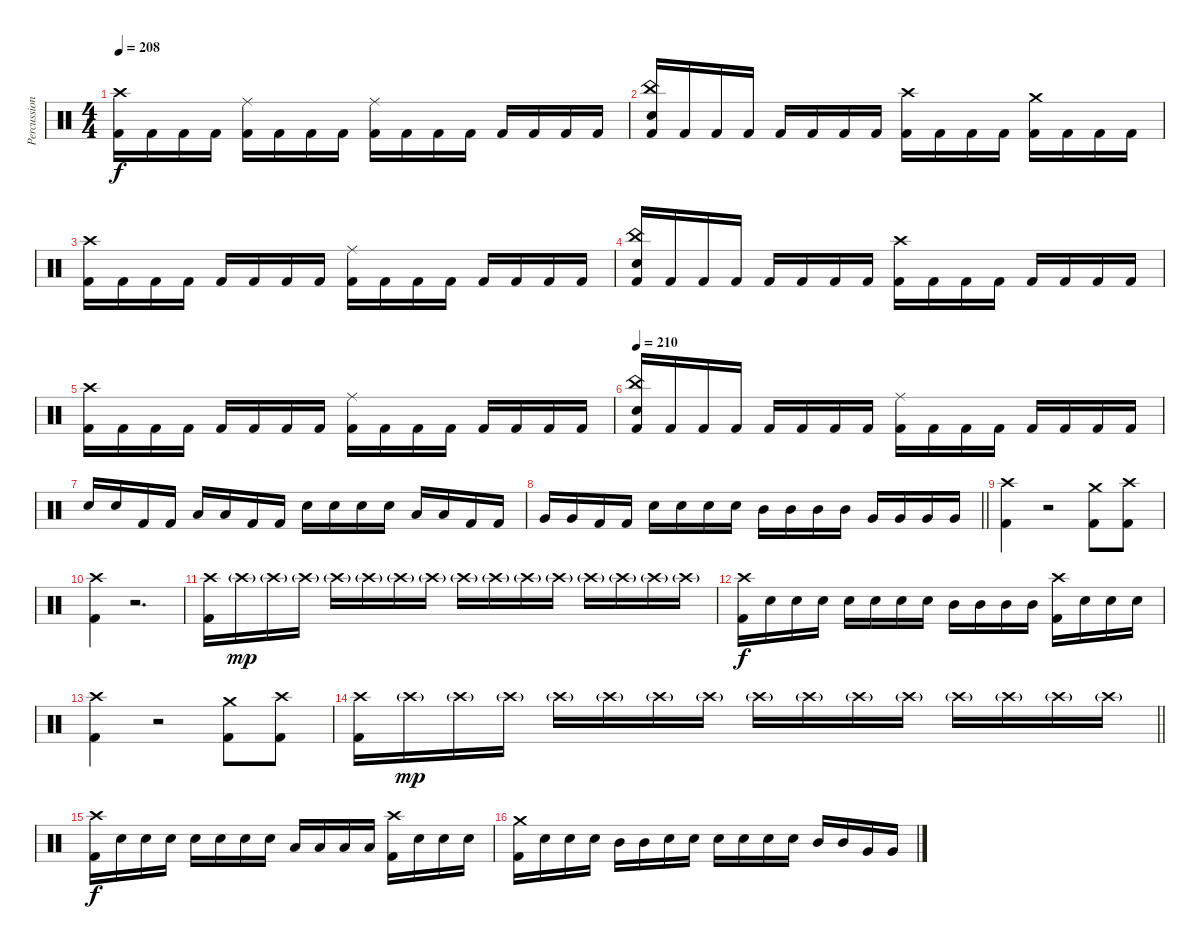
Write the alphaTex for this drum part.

\track ("Percussion" "Percussion") {instrument percussion}
\staff {score}
\articulation defaults
\ts (4 4)
\tempo 208
\clef neutral
\ks c
("Crash high (hit)" "Kick (hit) 2").16{dy f} "Kick (hit) 2".16 "Kick (hit) 2".16 "Kick (hit) 2".16 ("Ride (middle)" "Kick (hit) 2").16 "Kick (hit) 2".16 "Kick (hit) 2".16 "Kick (hit) 2".16 ("Ride (middle)" "Kick (hit) 2").16 "Kick (hit) 2".16 "Kick (hit) 2".16 "Kick (hit) 2".16 "Kick (hit) 2".16 "Kick (hit) 2".16 "Kick (hit) 2".16 "Kick (hit) 2".16 |
("China (hit)" "Snare (hit) 2" "Kick (hit) 2").16 "Kick (hit) 2".16 "Kick (hit) 2".16 "Kick (hit) 2".16 "Kick (hit) 2".16 "Kick (hit) 2".16 "Kick (hit) 2".16 "Kick (hit) 2".16 ("Crash high (hit)" "Kick (hit) 2").16 "Kick (hit) 2".16 "Kick (hit) 2".16 "Kick (hit) 2".16 ("Crash medium (hit)" "Kick (hit) 2").16 "Kick (hit) 2".16 "Kick (hit) 2".16 "Kick (hit) 2".16 |
("Crash high (hit)" "Kick (hit) 2").16 "Kick (hit) 2".16 "Kick (hit) 2".16 "Kick (hit) 2".16 "Kick (hit) 2".16 "Kick (hit) 2".16 "Kick (hit) 2".16 "Kick (hit) 2".16 ("Ride (middle)" "Kick (hit) 2").16 "Kick (hit) 2".16 "Kick (hit) 2".16 "Kick (hit) 2".16 "Kick (hit) 2".16 "Kick (hit) 2".16 "Kick (hit) 2".16 "Kick (hit) 2".16 |
("China (hit)" "Snare (hit) 2" "Kick (hit) 2").16 "Kick (hit) 2".16 "Kick (hit) 2".16 "Kick (hit) 2".16 "Kick (hit) 2".16 "Kick (hit) 2".16 "Kick (hit) 2".16 "Kick (hit) 2".16 ("Crash high (hit)" "Kick (hit) 2").16 "Kick (hit) 2".16 "Kick (hit) 2".16 "Kick (hit) 2".16 "Kick (hit) 2".16 "Kick (hit) 2".16 "Kick (hit) 2".16 "Kick (hit) 2".16 |
("Crash high (hit)" "Kick (hit) 2").16 "Kick (hit) 2".16 "Kick (hit) 2".16 "Kick (hit) 2".16 "Kick (hit) 2".16 "Kick (hit) 2".16 "Kick (hit) 2".16 "Kick (hit) 2".16 ("Ride (middle)" "Kick (hit) 2").16 "Kick (hit) 2".16 "Kick (hit) 2".16 "Kick (hit) 2".16 "Kick (hit) 2".16 "Kick (hit) 2".16 "Kick (hit) 2".16 "Kick (hit) 2".16 |
\tempo 210
("China (hit)" "Snare (hit) 2" "Kick (hit) 2").16 "Kick (hit) 2".16 "Kick (hit) 2".16 "Kick (hit) 2".16 "Kick (hit) 2".16 "Kick (hit) 2".16 "Kick (hit) 2".16 "Kick (hit) 2".16 ("Ride (middle)" "Kick (hit) 2").16 "Kick (hit) 2".16 "Kick (hit) 2".16 "Kick (hit) 2".16 "Kick (hit) 2".16 "Kick (hit) 2".16 "Kick (hit) 2".16 "Kick (hit) 2".16 |
"Snare (hit) 2".16 "Snare (hit) 2".16 "Kick (hit) 2".16 "Kick (hit) 2".16 "Low Tom (hit)".16 "Low Tom (hit)".16 "Kick (hit) 2".16 "Kick (hit) 2".16 "Snare (hit) 2".16 "Snare (hit) 2".16 "Snare (hit) 2".16 "Snare (hit) 2".16 "Low Tom (hit)".16 "Low Tom (hit)".16 "Kick (hit) 2".16 "Kick (hit) 2".16 |
\barLineRight lightlight "Very Low Tom (hit)".16 "Very Low Tom (hit)".16 "Kick (hit) 2".16 "Kick (hit) 2".16 "Snare (hit) 2".16 "Snare (hit) 2".16 "Snare (hit) 2".16 "Snare (hit) 2".16 "Mid Tom (hit)".16 "Mid Tom (hit)".16 "Mid Tom (hit)".16 "Mid Tom (hit)".16 "Very Low Tom (hit)".16 "Very Low Tom (hit)".16 "Very Low Tom (hit)".16 "Very Low Tom (hit)".16
|
("Crash high (hit)" "Kick (hit) 2").4 r.2 ("Crash medium (hit)" "Kick (hit) 2").8 ("Crash high (hit)" "Kick (hit) 2").8 |
("Crash high (hit)" "Kick (hit) 2").4 r.2{d} |
("Crash high (hit)" "Kick (hit) 2").16 "Crash high (hit)"{g}.16{dy mp} "Crash high (hit)"{g}.16 "Crash high (hit)"{g}.16 "Crash high (hit)"{g}.16 "Crash high (hit)"{g}.16 "Crash high (hit)"{g}.16 "Crash high (hit)"{g}.16 "Crash high (hit)"{g}.16 "Crash high (hit)"{g}.16 "Crash high (hit)"{g}.16 "Crash high (hit)"{g}.16 "Crash high (hit)"{g}.16 "Crash high (hit)"{g}.16 "Crash high (hit)"{g}.16 "Crash high (hit)"{g}.16 |
("Crash high (hit)" "Kick (hit) 2").16{dy f} "Snare (hit) 2".16 "Snare (hit) 2".16 "Snare (hit) 2".16 "Snare (hit) 2".16 "Snare (hit) 2".16 "Snare (hit) 2".16 "Snare (hit) 2".16 "Mid Tom (hit)".16 "Mid Tom (hit)".16 "Mid Tom (hit)".16 "Mid Tom (hit)".16 ("Crash high (hit)" "Kick (hit) 2").16 "Snare (hit) 2".16 "Snare (hit) 2".16 "Snare (hit) 2".16 |
("Crash high (hit)" "Kick (hit) 2").4 r.2 ("Crash medium (hit)" "Kick (hit) 2").8 ("Crash high (hit)" "Kick (hit) 2").8 |
\barLineRight lightlight
("Crash high (hit)" "Kick (hit) 2").16 "Crash high (hit)"{g}.16{dy mp} "Crash high (hit)"{g}.16 "Crash high (hit)"{g}.16 "Crash high (hit)"{g}.16 "Crash high (hit)"{g}.16 "Crash high (hit)"{g}.16 "Crash high (hit)"{g}.16 "Crash high (hit)"{g}.16 "Crash high (hit)"{g}.16 "Crash high (hit)"{g}.16 "Crash high (hit)"{g}.16 "Crash high (hit)"{g}.16 "Crash high (hit)"{g}.16 "Crash high (hit)"{g}.16 "Crash high (hit)"{g}.16 |
("Crash high (hit)" "Kick (hit) 2").16{dy f} "Snare (hit) 2".16 "Snare (hit) 2".16 "Snare (hit) 2".16 "Snare (hit) 2".16 "Snare (hit) 2".16 "Snare (hit) 2".16 "Snare (hit) 2".16 "Low Tom (hit)".16 "Low Tom (hit)".16 "Low Tom (hit)".16 "Low Tom (hit)".16 ("Crash high (hit)" "Kick (hit) 2").16 "Snare (hit) 2".16 "Snare (hit) 2".16 "Snare (hit) 2".16 |
("Crash medium (hit)" "Kick (hit) 2").16 "Snare (hit) 2".16 "Snare (hit) 2".16 "Snare (hit) 2".16 "Mid Tom (hit)".16 "Mid Tom (hit)".16 "Snare (hit) 2".16 "Snare (hit) 2".16 "Snare (hit) 2".16 "Snare (hit) 2".16 "Snare (hit) 2".16 "Snare (hit) 2".16 "Mid Tom (hit)".16 "Mid Tom (hit)".16 "Very Low Tom (hit)".16 "Very Low Tom (hit)".16
